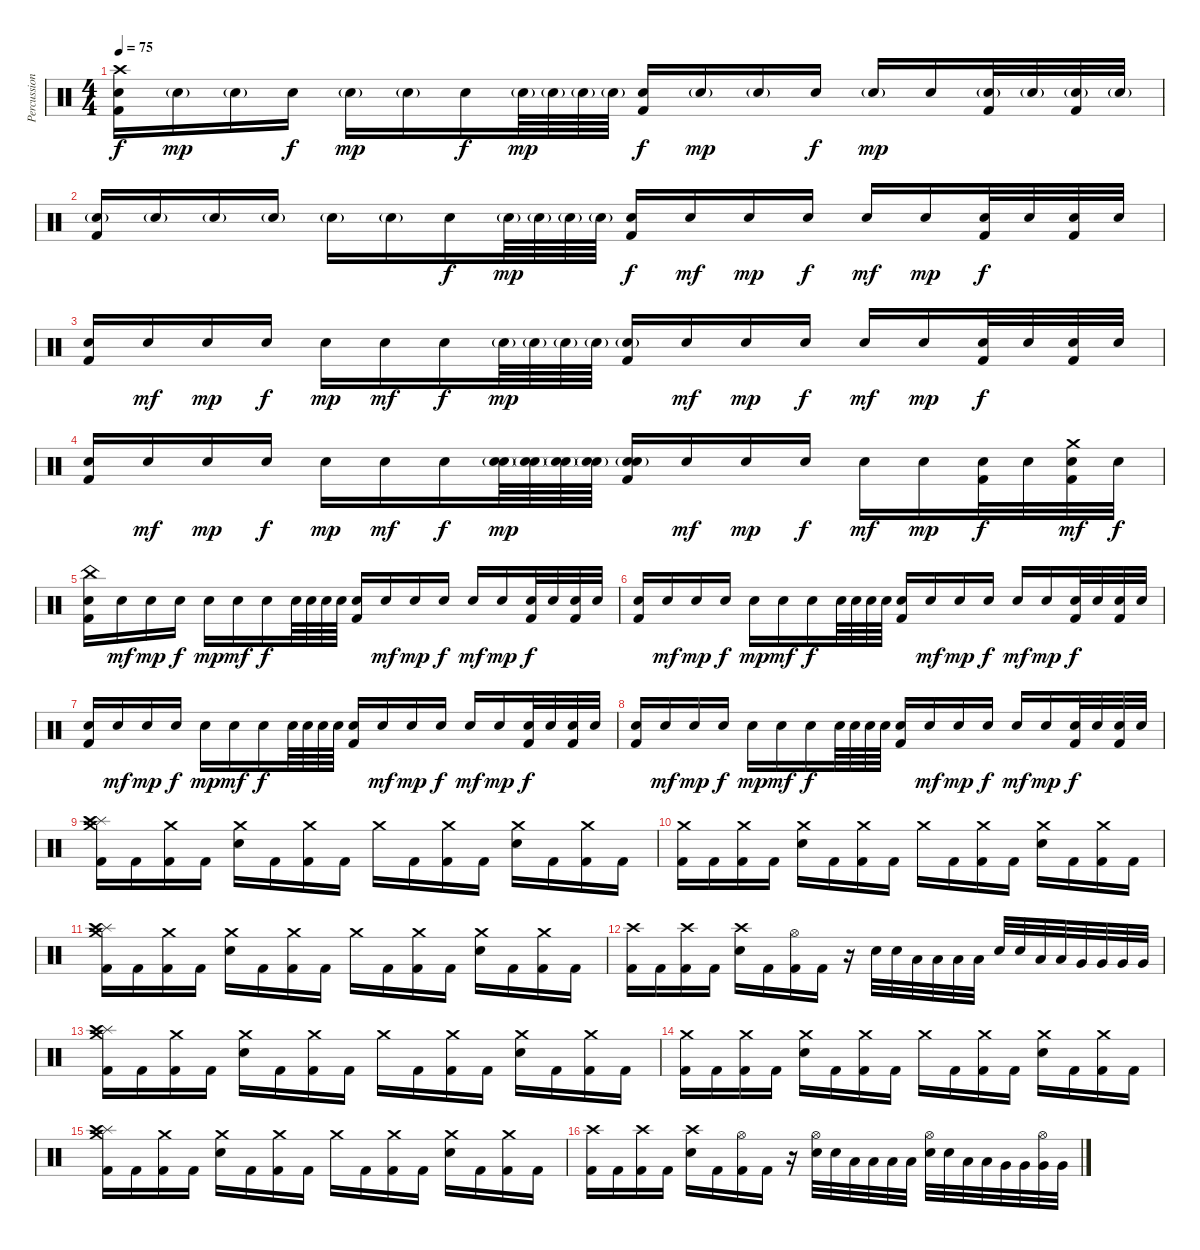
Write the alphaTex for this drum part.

\track ("Percussion" "Percussion") {instrument percussion}
\staff {score}
\articulation defaults
\ts (4 4)
\tempo 75
\clef neutral
\ks c
("Crash high (hit)" "Snare (hit) 2" "Kick (hit) 2").16{dy f} "Snare (hit) 2"{g}.16{dy mp} "Snare (hit) 2"{g}.16 "Snare (hit) 2".16{dy f} "Snare (hit) 2"{g}.16{dy mp} "Snare (hit) 2"{g}.16 "Snare (hit) 2".16{dy f} "Snare (hit) 2"{g}.64{dy mp} "Snare (hit) 2"{g}.64 "Snare (hit) 2"{g}.64 "Snare (hit) 2"{g}.64 ("Snare (hit) 2" "Kick (hit) 2").16{dy f} "Snare (hit) 2"{g}.16{dy mp} "Snare (hit) 2"{g}.16 "Snare (hit) 2".16{dy f} "Snare (hit) 2"{g}.16{dy mp} "Snare (hit) 2".16 ("Snare (hit) 2"{g} "Kick (hit) 2").32 "Snare (hit) 2"{g}.32 ("Snare (hit) 2"{g} "Kick (hit) 2").32 "Snare (hit) 2"{g}.32 |
("Snare (hit) 2"{g} "Kick (hit) 2").16 "Snare (hit) 2"{g}.16 "Snare (hit) 2"{g}.16 "Snare (hit) 2"{g}.16 "Snare (hit) 2"{g}.16 "Snare (hit) 2"{g}.16 "Snare (hit) 2".16{dy f} "Snare (hit) 2"{g}.64{dy mp} "Snare (hit) 2"{g}.64 "Snare (hit) 2"{g}.64 "Snare (hit) 2"{g}.64 ("Snare (hit) 2" "Kick (hit) 2").16{dy f} "Snare (hit) 2".16{dy mf} "Snare (hit) 2".16{dy mp} "Snare (hit) 2".16{dy f} "Snare (hit) 2".16{dy mf} "Snare (hit) 2".16{dy mp} ("Snare (hit) 2" "Kick (hit) 2").32{dy f} "Snare (hit) 2".32 ("Snare (hit) 2" "Kick (hit) 2").32 "Snare (hit) 2".32 |
("Snare (hit) 2" "Kick (hit) 2").16 "Snare (hit) 2".16{dy mf} "Snare (hit) 2".16{dy mp} "Snare (hit) 2".16{dy f} "Snare (hit) 2".16{dy mp} "Snare (hit) 2".16{dy mf} "Snare (hit) 2".16{dy f} "Snare (hit) 2"{g}.64{dy mp} "Snare (hit) 2"{g}.64 "Snare (hit) 2"{g}.64 "Snare (hit) 2"{g}.64 ("Snare (hit) 2"{g} "Kick (hit) 2").16 "Snare (hit) 2".16{dy mf} "Snare (hit) 2".16{dy mp} "Snare (hit) 2".16{dy f} "Snare (hit) 2".16{dy mf} "Snare (hit) 2".16{dy mp} ("Snare (hit) 2" "Kick (hit) 2").32{dy f} "Snare (hit) 2".32 ("Snare (hit) 2" "Kick (hit) 2").32 "Snare (hit) 2".32 |
("Snare (hit) 2" "Kick (hit) 2").16 "Snare (hit) 2".16{dy mf} "Snare (hit) 2".16{dy mp} "Snare (hit) 2".16{dy f} "Snare (hit) 2".16{dy mp} "Snare (hit) 2".16{dy mf} "Snare (hit) 2".16{dy f} ("Snare (hit) 2"{g} "Snare (hit) 2"{g}).64{dy mp} ("Snare (hit) 2"{g} "Snare (hit) 2"{g}).64 ("Snare (hit) 2"{g} "Snare (hit) 2"{g}).64 ("Snare (hit) 2"{g} "Snare (hit) 2"{g}).64 ("Snare (hit) 2"{g} "Snare (hit) 2"{g} "Kick (hit) 2").16 "Snare (hit) 2".16{dy mf} "Snare (hit) 2".16{dy mp} "Snare (hit) 2".16{dy f} "Snare (hit) 2".16{dy mf} "Snare (hit) 2".16{dy mp} ("Snare (hit) 2" "Kick (hit) 2").32{dy f} "Snare (hit) 2".32 ("Crash medium (hit)" "Snare (hit) 2" "Kick (hit) 2").32{dy mf} "Snare (hit) 2".32{dy f} |
("China (hit)" "Snare (hit) 2" "Kick (hit) 2").16 "Snare (hit) 2".16{dy mf} "Snare (hit) 2".16{dy mp} "Snare (hit) 2".16{dy f} "Snare (hit) 2".16{dy mp} "Snare (hit) 2".16{dy mf} "Snare (hit) 2".16{dy f} "Snare (hit) 2".64 "Snare (hit) 2".64 "Snare (hit) 2".64 "Snare (hit) 2".64 ("Snare (hit) 2" "Kick (hit) 2").16 "Snare (hit) 2".16{dy mf} "Snare (hit) 2".16{dy mp} "Snare (hit) 2".16{dy f} "Snare (hit) 2".16{dy mf} "Snare (hit) 2".16{dy mp} ("Snare (hit) 2" "Kick (hit) 2").32{dy f} "Snare (hit) 2".32 ("Snare (hit) 2" "Kick (hit) 2").32 "Snare (hit) 2".32 |
("Snare (hit) 2" "Kick (hit) 2").16 "Snare (hit) 2".16{dy mf} "Snare (hit) 2".16{dy mp} "Snare (hit) 2".16{dy f} "Snare (hit) 2".16{dy mp} "Snare (hit) 2".16{dy mf} "Snare (hit) 2".16{dy f} "Snare (hit) 2".64 "Snare (hit) 2".64 "Snare (hit) 2".64 "Snare (hit) 2".64 ("Snare (hit) 2" "Kick (hit) 2").16 "Snare (hit) 2".16{dy mf} "Snare (hit) 2".16{dy mp} "Snare (hit) 2".16{dy f} "Snare (hit) 2".16{dy mf} "Snare (hit) 2".16{dy mp} ("Snare (hit) 2" "Kick (hit) 2").32{dy f} "Snare (hit) 2".32 ("Snare (hit) 2" "Kick (hit) 2").32 "Snare (hit) 2".32 |
("Snare (hit) 2" "Kick (hit) 2").16 "Snare (hit) 2".16{dy mf} "Snare (hit) 2".16{dy mp} "Snare (hit) 2".16{dy f} "Snare (hit) 2".16{dy mp} "Snare (hit) 2".16{dy mf} "Snare (hit) 2".16{dy f} "Snare (hit) 2".64 "Snare (hit) 2".64 "Snare (hit) 2".64 "Snare (hit) 2".64 ("Snare (hit) 2" "Kick (hit) 2").16 "Snare (hit) 2".16{dy mf} "Snare (hit) 2".16{dy mp} "Snare (hit) 2".16{dy f} "Snare (hit) 2".16{dy mf} "Snare (hit) 2".16{dy mp} ("Snare (hit) 2" "Kick (hit) 2").32{dy f} "Snare (hit) 2".32 ("Snare (hit) 2" "Kick (hit) 2").32 "Snare (hit) 2".32 |
("Snare (hit) 2" "Kick (hit) 2").16 "Snare (hit) 2".16{dy mf} "Snare (hit) 2".16{dy mp} "Snare (hit) 2".16{dy f} "Snare (hit) 2".16{dy mp} "Snare (hit) 2".16{dy mf} "Snare (hit) 2".16{dy f} "Snare (hit) 2".64 "Snare (hit) 2".64 "Snare (hit) 2".64 "Snare (hit) 2".64 ("Snare (hit) 2" "Kick (hit) 2").16 "Snare (hit) 2".16{dy mf} "Snare (hit) 2".16{dy mp} "Snare (hit) 2".16{dy f} "Snare (hit) 2".16{dy mf} "Snare (hit) 2".16{dy mp} ("Snare (hit) 2" "Kick (hit) 2").32{dy f} "Snare (hit) 2".32 ("Snare (hit) 2" "Kick (hit) 2").32 "Snare (hit) 2".32 |
("Splash (hit)" "Crash high (hit)" "Crash medium (hit)" "Kick (hit) 2").16 "Kick (hit) 2".16 ("Crash medium (hit)" "Kick (hit) 2").16 "Kick (hit) 2".16 ("Crash medium (hit)" "Snare (hit) 2").16 "Kick (hit) 2".16 ("Crash medium (hit)" "Kick (hit) 2").16 "Kick (hit) 2".16 "Crash medium (hit)".16 "Kick (hit) 2".16 ("Crash medium (hit)" "Kick (hit) 2").16 "Kick (hit) 2".16 ("Crash medium (hit)" "Snare (hit) 2").16 "Kick (hit) 2".16 ("Crash medium (hit)" "Kick (hit) 2").16 "Kick (hit) 2".16 |
("Crash medium (hit)" "Kick (hit) 2").16 "Kick (hit) 2".16 ("Crash medium (hit)" "Kick (hit) 2").16 "Kick (hit) 2".16 ("Crash medium (hit)" "Snare (hit) 2").16 "Kick (hit) 2".16 ("Crash medium (hit)" "Kick (hit) 2").16 "Kick (hit) 2".16 "Crash medium (hit)".16 "Kick (hit) 2".16 ("Crash medium (hit)" "Kick (hit) 2").16 "Kick (hit) 2".16 ("Crash medium (hit)" "Snare (hit) 2").16 "Kick (hit) 2".16 ("Crash medium (hit)" "Kick (hit) 2").16 "Kick (hit) 2".16 |
("Splash (hit)" "Crash high (hit)" "Crash medium (hit)" "Kick (hit) 2").16 "Kick (hit) 2".16 ("Crash medium (hit)" "Kick (hit) 2").16 "Kick (hit) 2".16 ("Crash medium (hit)" "Snare (hit) 2").16 "Kick (hit) 2".16 ("Crash medium (hit)" "Kick (hit) 2").16 "Kick (hit) 2".16 "Crash medium (hit)".16 "Kick (hit) 2".16 ("Crash medium (hit)" "Kick (hit) 2").16 "Kick (hit) 2".16 ("Crash medium (hit)" "Snare (hit) 2").16 "Kick (hit) 2".16 ("Crash medium (hit)" "Kick (hit) 2").16 "Kick (hit) 2".16 |
("Crash high (hit)" "Kick (hit) 2").16 "Kick (hit) 2".16 ("Crash high (hit)" "Kick (hit) 2").16 "Kick (hit) 2".16 ("Crash high (hit)" "Electric Snare (hit)").16 "Kick (hit) 2".16 ("Hi-Hat (open)" "Kick (hit) 2").16 "Kick (hit) 2".16 r.16 "Electric Snare (hit)".32 "Electric Snare (hit)".32 "Low Tom (hit)".32 "Low Tom (hit)".32 "Low Tom (hit)".32 "Low Tom (hit)".32 "Electric Snare (hit)".32 "Electric Snare (hit)".32 "Low Tom (hit)".32 "Low Tom (hit)".32 "Very Low Tom (hit)".32 "Very Low Tom (hit)".32 "Very Low Tom (hit)".32 "Very Low Tom (hit)".32 |
("Splash (hit)" "Crash high (hit)" "Crash medium (hit)" "Kick (hit) 2").16 "Kick (hit) 2".16 ("Crash medium (hit)" "Kick (hit) 2").16 "Kick (hit) 2".16 ("Crash medium (hit)" "Snare (hit) 2").16 "Kick (hit) 2".16 ("Crash medium (hit)" "Kick (hit) 2").16 "Kick (hit) 2".16 "Crash medium (hit)".16 "Kick (hit) 2".16 ("Crash medium (hit)" "Kick (hit) 2").16 "Kick (hit) 2".16 ("Crash medium (hit)" "Snare (hit) 2").16 "Kick (hit) 2".16 ("Crash medium (hit)" "Kick (hit) 2").16 "Kick (hit) 2".16 |
("Crash medium (hit)" "Kick (hit) 2").16 "Kick (hit) 2".16 ("Crash medium (hit)" "Kick (hit) 2").16 "Kick (hit) 2".16 ("Crash medium (hit)" "Snare (hit) 2").16 "Kick (hit) 2".16 ("Crash medium (hit)" "Kick (hit) 2").16 "Kick (hit) 2".16 "Crash medium (hit)".16 "Kick (hit) 2".16 ("Crash medium (hit)" "Kick (hit) 2").16 "Kick (hit) 2".16 ("Crash medium (hit)" "Snare (hit) 2").16 "Kick (hit) 2".16 ("Crash medium (hit)" "Kick (hit) 2").16 "Kick (hit) 2".16 |
("Splash (hit)" "Crash high (hit)" "Crash medium (hit)" "Kick (hit) 2").16 "Kick (hit) 2".16 ("Crash medium (hit)" "Kick (hit) 2").16 "Kick (hit) 2".16 ("Crash medium (hit)" "Snare (hit) 2").16 "Kick (hit) 2".16 ("Crash medium (hit)" "Kick (hit) 2").16 "Kick (hit) 2".16 "Crash medium (hit)".16 "Kick (hit) 2".16 ("Crash medium (hit)" "Kick (hit) 2").16 "Kick (hit) 2".16 ("Crash medium (hit)" "Snare (hit) 2").16 "Kick (hit) 2".16 ("Crash medium (hit)" "Kick (hit) 2").16 "Kick (hit) 2".16 |
("Crash high (hit)" "Kick (hit) 2").16 "Kick (hit) 2".16 ("Crash high (hit)" "Kick (hit) 2").16 "Kick (hit) 2".16 ("Crash high (hit)" "Snare (hit) 2").16 "Kick (hit) 2".16 ("Hi-Hat (open)" "Kick (hit) 2").16 "Kick (hit) 2".16 r.16 ("Hi-Hat (open)" "Electric Snare (hit)").32 "Electric Snare (hit)".32 "Low Tom (hit)".32 "Low Tom (hit)".32 "Low Tom (hit)".32 "Low Tom (hit)".32 ("Hi-Hat (open)" "Electric Snare (hit)").32 "Electric Snare (hit)".32 "Low Tom (hit)".32 "Low Tom (hit)".32 "Very Low Tom (hit)".32 "Very Low Tom (hit)".32 ("Hi-Hat (open)" "Very Low Tom (hit)").32 "Very Low Tom (hit)".32
